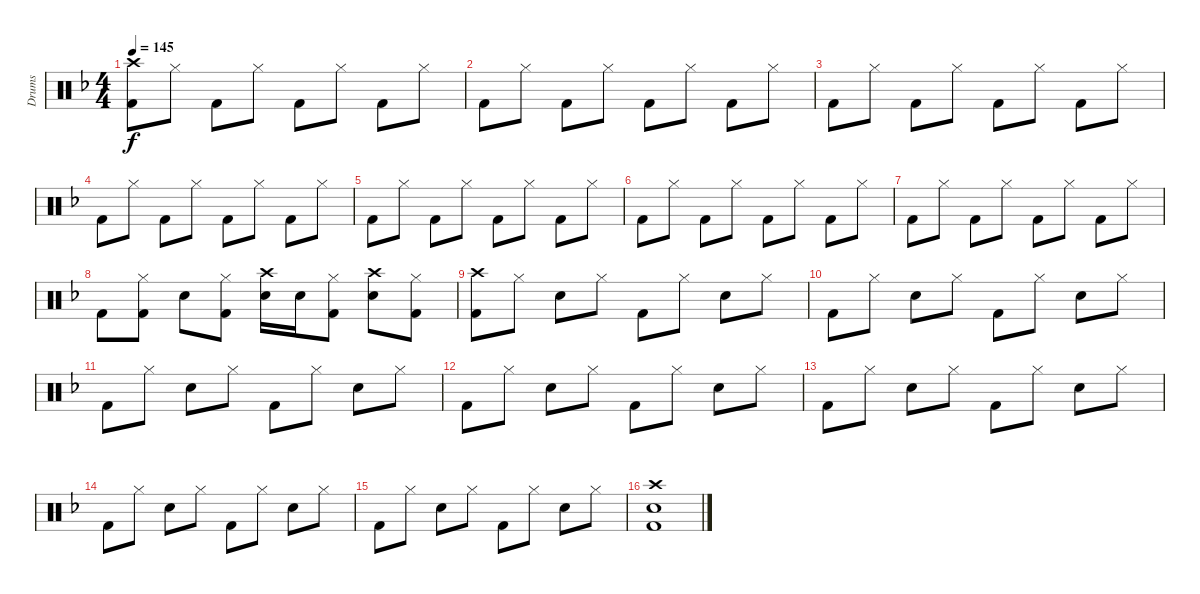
\track ("Drums" "Drums") {instrument percussion}
\staff {score}
\articulation defaults
\ts (4 4)
\tempo 145
\clef neutral
\ks f
("Kick (hit) 2" "Crash high (hit)").8{dy f} "Hi-Hat (closed)".8 "Kick (hit) 2".8 "Hi-Hat (closed)".8 "Kick (hit) 2".8 "Hi-Hat (closed)".8 "Kick (hit) 2".8 "Hi-Hat (closed)".8 |
"Kick (hit) 2".8 "Hi-Hat (closed)".8 "Kick (hit) 2".8 "Hi-Hat (closed)".8 "Kick (hit) 2".8 "Hi-Hat (closed)".8 "Kick (hit) 2".8 "Hi-Hat (closed)".8 |
"Kick (hit) 2".8 "Hi-Hat (closed)".8 "Kick (hit) 2".8 "Hi-Hat (closed)".8 "Kick (hit) 2".8 "Hi-Hat (closed)".8 "Kick (hit) 2".8 "Hi-Hat (closed)".8 |
"Kick (hit) 2".8 "Hi-Hat (closed)".8 "Kick (hit) 2".8 "Hi-Hat (closed)".8 "Kick (hit) 2".8 "Hi-Hat (closed)".8 "Kick (hit) 2".8 "Hi-Hat (closed)".8 |
"Kick (hit) 2".8 "Hi-Hat (closed)".8 "Kick (hit) 2".8 "Hi-Hat (closed)".8 "Kick (hit) 2".8 "Hi-Hat (closed)".8 "Kick (hit) 2".8 "Hi-Hat (closed)".8 |
"Kick (hit) 2".8 "Hi-Hat (closed)".8 "Kick (hit) 2".8 "Hi-Hat (closed)".8 "Kick (hit) 2".8 "Hi-Hat (closed)".8 "Kick (hit) 2".8 "Hi-Hat (closed)".8 |
"Kick (hit) 2".8 "Hi-Hat (closed)".8 "Kick (hit) 2".8 "Hi-Hat (closed)".8 "Kick (hit) 2".8 "Hi-Hat (closed)".8 "Kick (hit) 2".8 "Hi-Hat (closed)".8 |
"Kick (hit) 2".8 ("Hi-Hat (closed)" "Kick (hit) 2").8 "Snare (hit) 2".8 ("Hi-Hat (closed)" "Kick (hit) 2").8 ("Crash high (hit)" "Snare (hit) 2").16 "Snare (hit) 2".16 ("Kick (hit) 2" "Hi-Hat (closed)").8 ("Snare (hit) 2" "Crash high (hit)").8 ("Kick (hit) 2" "Hi-Hat (closed)").8 |
("Crash high (hit)" "Kick (hit) 2").8 "Hi-Hat (closed)".8 "Snare (hit) 2".8 "Hi-Hat (closed)".8 "Kick (hit) 2".8 "Hi-Hat (closed)".8 "Snare (hit) 2".8 "Hi-Hat (closed)".8 |
"Kick (hit) 2".8 "Hi-Hat (closed)".8 "Snare (hit) 2".8 "Hi-Hat (closed)".8 "Kick (hit) 2".8 "Hi-Hat (closed)".8 "Snare (hit) 2".8 "Hi-Hat (closed)".8 |
"Kick (hit) 2".8 "Hi-Hat (closed)".8 "Snare (hit) 2".8 "Hi-Hat (closed)".8 "Kick (hit) 2".8 "Hi-Hat (closed)".8 "Snare (hit) 2".8 "Hi-Hat (closed)".8 |
"Kick (hit) 2".8 "Hi-Hat (closed)".8 "Snare (hit) 2".8 "Hi-Hat (closed)".8 "Kick (hit) 2".8 "Hi-Hat (closed)".8 "Snare (hit) 2".8 "Hi-Hat (closed)".8 |
"Kick (hit) 2".8 "Hi-Hat (closed)".8 "Snare (hit) 2".8 "Hi-Hat (closed)".8 "Kick (hit) 2".8 "Hi-Hat (closed)".8 "Snare (hit) 2".8 "Hi-Hat (closed)".8 |
"Kick (hit) 2".8 "Hi-Hat (closed)".8 "Snare (hit) 2".8 "Hi-Hat (closed)".8 "Kick (hit) 2".8 "Hi-Hat (closed)".8 "Snare (hit) 2".8 "Hi-Hat (closed)".8 |
"Kick (hit) 2".8 "Hi-Hat (closed)".8 "Snare (hit) 2".8 "Hi-Hat (closed)".8 "Kick (hit) 2".8 "Hi-Hat (closed)".8 "Snare (hit) 2".8 "Hi-Hat (closed)".8 |
("Kick (hit) 2" "Snare (hit) 2" "Crash high (hit)").1
